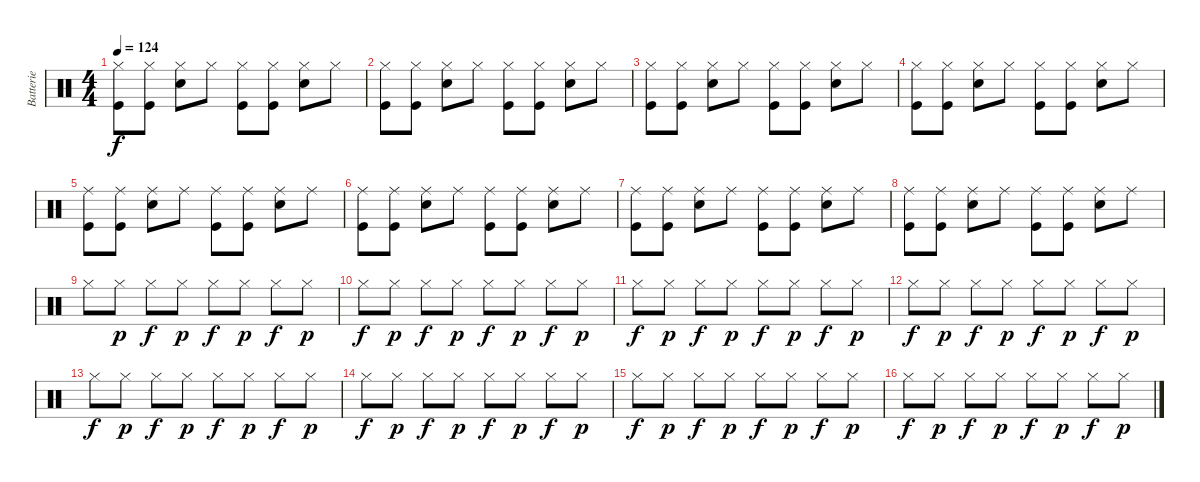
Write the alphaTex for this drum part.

\track ("Batterie" "Batterie") {instrument percussion}
\staff {score}
\articulation defaults
\ts (4 4)
\tempo 124
\clef neutral
\ks c
("Hi-Hat (closed)" "Kick (hit)").8{dy f} ("Hi-Hat (closed)" "Kick (hit)").8 ("Hi-Hat (closed)" "Snare (hit) 2").8 "Hi-Hat (closed)".8 ("Hi-Hat (closed)" "Kick (hit)").8 ("Hi-Hat (closed)" "Kick (hit)").8 ("Hi-Hat (closed)" "Snare (hit) 2").8 "Hi-Hat (closed)".8 |
("Hi-Hat (closed)" "Kick (hit)").8 ("Hi-Hat (closed)" "Kick (hit)").8 ("Hi-Hat (closed)" "Snare (hit) 2").8 "Hi-Hat (closed)".8 ("Hi-Hat (closed)" "Kick (hit)").8 ("Hi-Hat (closed)" "Kick (hit)").8 ("Hi-Hat (closed)" "Snare (hit) 2").8 "Hi-Hat (closed)".8 |
("Hi-Hat (closed)" "Kick (hit)").8 ("Hi-Hat (closed)" "Kick (hit)").8 ("Hi-Hat (closed)" "Snare (hit) 2").8 "Hi-Hat (closed)".8 ("Hi-Hat (closed)" "Kick (hit)").8 ("Hi-Hat (closed)" "Kick (hit)").8 ("Hi-Hat (closed)" "Snare (hit) 2").8 "Hi-Hat (closed)".8 |
("Hi-Hat (closed)" "Kick (hit)").8 ("Hi-Hat (closed)" "Kick (hit)").8 ("Hi-Hat (closed)" "Snare (hit) 2").8 "Hi-Hat (closed)".8 ("Hi-Hat (closed)" "Kick (hit)").8 ("Hi-Hat (closed)" "Kick (hit)").8 ("Hi-Hat (closed)" "Snare (hit) 2").8 "Hi-Hat (closed)".8 |
("Ride (middle)" "Kick (hit)").8 ("Ride (middle)" "Kick (hit)").8 ("Ride (middle)" "Snare (hit) 2").8 "Ride (middle)".8 ("Ride (middle)" "Kick (hit)").8 ("Ride (middle)" "Kick (hit)").8 ("Ride (middle)" "Snare (hit) 2").8 "Ride (middle)".8 |
("Ride (middle)" "Kick (hit)").8 ("Ride (middle)" "Kick (hit)").8 ("Ride (middle)" "Snare (hit) 2").8 "Ride (middle)".8 ("Ride (middle)" "Kick (hit)").8 ("Ride (middle)" "Kick (hit)").8 ("Ride (middle)" "Snare (hit) 2").8 "Ride (middle)".8 |
("Ride (middle)" "Kick (hit)").8 ("Ride (middle)" "Kick (hit)").8 ("Ride (middle)" "Snare (hit) 2").8 "Ride (middle)".8 ("Ride (middle)" "Kick (hit)").8 ("Ride (middle)" "Kick (hit)").8 ("Ride (middle)" "Snare (hit) 2").8 "Ride (middle)".8 |
("Ride (middle)" "Kick (hit)").8 ("Ride (middle)" "Kick (hit)").8 ("Ride (middle)" "Snare (hit) 2").8 "Ride (middle)".8 ("Ride (middle)" "Kick (hit)").8 ("Ride (middle)" "Kick (hit)").8 ("Ride (middle)" "Snare (hit) 2").8 "Ride (middle)".8 |
"Hi-Hat (closed)".8 "Hi-Hat (closed)".8{dy p} "Hi-Hat (closed)".8{dy f} "Hi-Hat (closed)".8{dy p} "Hi-Hat (closed)".8{dy f} "Hi-Hat (closed)".8{dy p} "Hi-Hat (closed)".8{dy f} "Hi-Hat (closed)".8{dy p} |
"Hi-Hat (closed)".8{dy f} "Hi-Hat (closed)".8{dy p} "Hi-Hat (closed)".8{dy f} "Hi-Hat (closed)".8{dy p} "Hi-Hat (closed)".8{dy f} "Hi-Hat (closed)".8{dy p} "Hi-Hat (closed)".8{dy f} "Hi-Hat (closed)".8{dy p} |
"Hi-Hat (closed)".8{dy f} "Hi-Hat (closed)".8{dy p} "Hi-Hat (closed)".8{dy f} "Hi-Hat (closed)".8{dy p} "Hi-Hat (closed)".8{dy f} "Hi-Hat (closed)".8{dy p} "Hi-Hat (closed)".8{dy f} "Hi-Hat (closed)".8{dy p} |
"Hi-Hat (closed)".8{dy f} "Hi-Hat (closed)".8{dy p} "Hi-Hat (closed)".8{dy f} "Hi-Hat (closed)".8{dy p} "Hi-Hat (closed)".8{dy f} "Hi-Hat (closed)".8{dy p} "Hi-Hat (closed)".8{dy f} "Hi-Hat (closed)".8{dy p} |
"Hi-Hat (closed)".8{dy f} "Hi-Hat (closed)".8{dy p} "Hi-Hat (closed)".8{dy f} "Hi-Hat (closed)".8{dy p} "Hi-Hat (closed)".8{dy f} "Hi-Hat (closed)".8{dy p} "Hi-Hat (closed)".8{dy f} "Hi-Hat (closed)".8{dy p} |
"Hi-Hat (closed)".8{dy f} "Hi-Hat (closed)".8{dy p} "Hi-Hat (closed)".8{dy f} "Hi-Hat (closed)".8{dy p} "Hi-Hat (closed)".8{dy f} "Hi-Hat (closed)".8{dy p} "Hi-Hat (closed)".8{dy f} "Hi-Hat (closed)".8{dy p} |
"Hi-Hat (closed)".8{dy f} "Hi-Hat (closed)".8{dy p} "Hi-Hat (closed)".8{dy f} "Hi-Hat (closed)".8{dy p} "Hi-Hat (closed)".8{dy f} "Hi-Hat (closed)".8{dy p} "Hi-Hat (closed)".8{dy f} "Hi-Hat (closed)".8{dy p} |
"Hi-Hat (closed)".8{dy f} "Hi-Hat (closed)".8{dy p} "Hi-Hat (closed)".8{dy f} "Hi-Hat (closed)".8{dy p} "Hi-Hat (closed)".8{dy f} "Hi-Hat (closed)".8{dy p} "Hi-Hat (closed)".8{dy f} "Hi-Hat (closed)".8{dy p}
